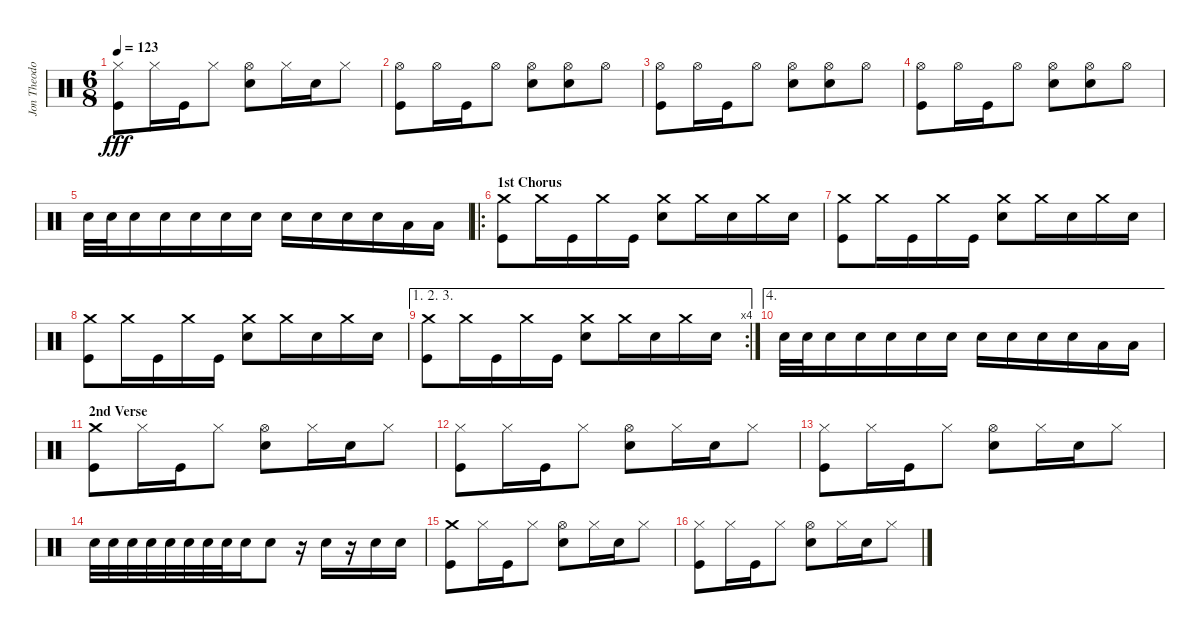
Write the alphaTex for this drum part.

\track ("Jon Theodore - Drums" "Jon Theodo") {instrument percussion}
\staff {score}
\articulation defaults
\ts (6 8)
\tempo 123
\clef neutral
\ks c
("Hi-Hat (closed)" "Kick (hit)").8{dy fff} "Hi-Hat (closed)".16 "Kick (hit)".16 "Hi-Hat (closed)".8 ("Hi-Hat (open)" "Snare (hit) 2").8 "Hi-Hat (closed)".16 "Snare (hit) 2".16 "Hi-Hat (closed)".8 |
("Hi-Hat (open)" "Kick (hit)").8 "Hi-Hat (open)".16 "Kick (hit)".16 "Hi-Hat (open)".8 ("Hi-Hat (open)" "Snare (hit) 2").8 ("Hi-Hat (open)" "Snare (hit) 2").8 "Hi-Hat (open)".8 |
("Hi-Hat (open)" "Kick (hit)").8 "Hi-Hat (open)".16 "Kick (hit)".16 "Hi-Hat (open)".8 ("Hi-Hat (open)" "Snare (hit) 2").8 ("Hi-Hat (open)" "Snare (hit) 2").8 "Hi-Hat (open)".8 |
("Hi-Hat (open)" "Kick (hit)").8 "Hi-Hat (open)".16 "Kick (hit)".16 "Hi-Hat (open)".8 ("Hi-Hat (open)" "Snare (hit) 2").8 ("Hi-Hat (open)" "Snare (hit) 2").8 "Hi-Hat (open)".8 |
"Snare (hit) 2".32 "Snare (hit) 2".32 "Snare (hit) 2".16 "Snare (hit) 2".16 "Snare (hit) 2".16 "Snare (hit) 2".16 "Snare (hit) 2".16 "Snare (hit) 2".16 "Snare (hit) 2".16 "Snare (hit) 2".16 "Snare (hit) 2".16 "Low Tom (hit)".16 "Low Tom (hit)".16 |
\ro
\section ("" "1st Chorus")
("Crash medium (hit)" "Kick (hit)").8 "Crash medium (hit)".16 "Kick (hit)".16 "Crash medium (hit)".16 "Kick (hit)".16 ("Crash medium (hit)" "Snare (hit) 2").8 "Crash medium (hit)".16 "Snare (hit) 2".16 "Crash medium (hit)".16 "Snare (hit) 2".16 |
("Crash medium (hit)" "Kick (hit)").8 "Crash medium (hit)".16 "Kick (hit)".16 "Crash medium (hit)".16 "Kick (hit)".16 ("Crash medium (hit)" "Snare (hit) 2").8 "Crash medium (hit)".16 "Snare (hit) 2".16 "Crash medium (hit)".16 "Snare (hit) 2".16 |
("Crash medium (hit)" "Kick (hit)").8 "Crash medium (hit)".16 "Kick (hit)".16 "Crash medium (hit)".16 "Kick (hit)".16 ("Crash medium (hit)" "Snare (hit) 2").8 "Crash medium (hit)".16 "Snare (hit) 2".16 "Crash medium (hit)".16 "Snare (hit) 2".16 |
\ae (1 2 3)
\rc 4
("Crash medium (hit)" "Kick (hit)").8 "Crash medium (hit)".16 "Kick (hit)".16 "Crash medium (hit)".16 "Kick (hit)".16 ("Crash medium (hit)" "Snare (hit) 2").8 "Crash medium (hit)".16 "Snare (hit) 2".16 "Crash medium (hit)".16 "Snare (hit) 2".16 |
\ae 4 "Snare (hit) 2".32 "Snare (hit) 2".32 "Snare (hit) 2".16 "Snare (hit) 2".16 "Snare (hit) 2".16 "Snare (hit) 2".16 "Snare (hit) 2".16 "Snare (hit) 2".16 "Snare (hit) 2".16 "Snare (hit) 2".16 "Snare (hit) 2".16 "Low Tom (hit)".16 "Low Tom (hit)".16
|
\section ("" "2nd Verse")
("Crash medium (hit)" "Kick (hit)").8 "Hi-Hat (closed)".16 "Kick (hit)".16 "Hi-Hat (closed)".8 ("Hi-Hat (open)" "Snare (hit) 2").8 "Hi-Hat (closed)".16 "Snare (hit) 2".16 "Hi-Hat (closed)".8 |
("Hi-Hat (closed)" "Kick (hit)").8 "Hi-Hat (closed)".16 "Kick (hit)".16 "Hi-Hat (closed)".8 ("Hi-Hat (open)" "Snare (hit) 2").8 "Hi-Hat (closed)".16 "Snare (hit) 2".16 "Hi-Hat (closed)".8 |
("Hi-Hat (closed)" "Kick (hit)").8 "Hi-Hat (closed)".16 "Kick (hit)".16 "Hi-Hat (closed)".8 ("Hi-Hat (open)" "Snare (hit) 2").8 "Hi-Hat (closed)".16 "Snare (hit) 2".16 "Hi-Hat (closed)".8 |
"Snare (hit) 2".32 "Snare (hit) 2".32 "Snare (hit) 2".32 "Snare (hit) 2".32 "Snare (hit) 2".32 "Snare (hit) 2".32 "Snare (hit) 2".32 "Snare (hit) 2".32 "Snare (hit) 2".16 "Snare (hit) 2".8 r.16 "Snare (hit) 2".16 r.16 "Snare (hit) 2".16 "Snare (hit) 2".16 |
("Crash medium (hit)" "Kick (hit)").8 "Hi-Hat (closed)".16 "Kick (hit)".16 "Hi-Hat (closed)".8 ("Hi-Hat (open)" "Snare (hit) 2").8 "Hi-Hat (closed)".16 "Snare (hit) 2".16 "Hi-Hat (closed)".8 |
("Hi-Hat (closed)" "Kick (hit)").8 "Hi-Hat (closed)".16 "Kick (hit)".16 "Hi-Hat (closed)".8 ("Hi-Hat (open)" "Snare (hit) 2").8 "Hi-Hat (closed)".16 "Snare (hit) 2".16 "Hi-Hat (closed)".8
